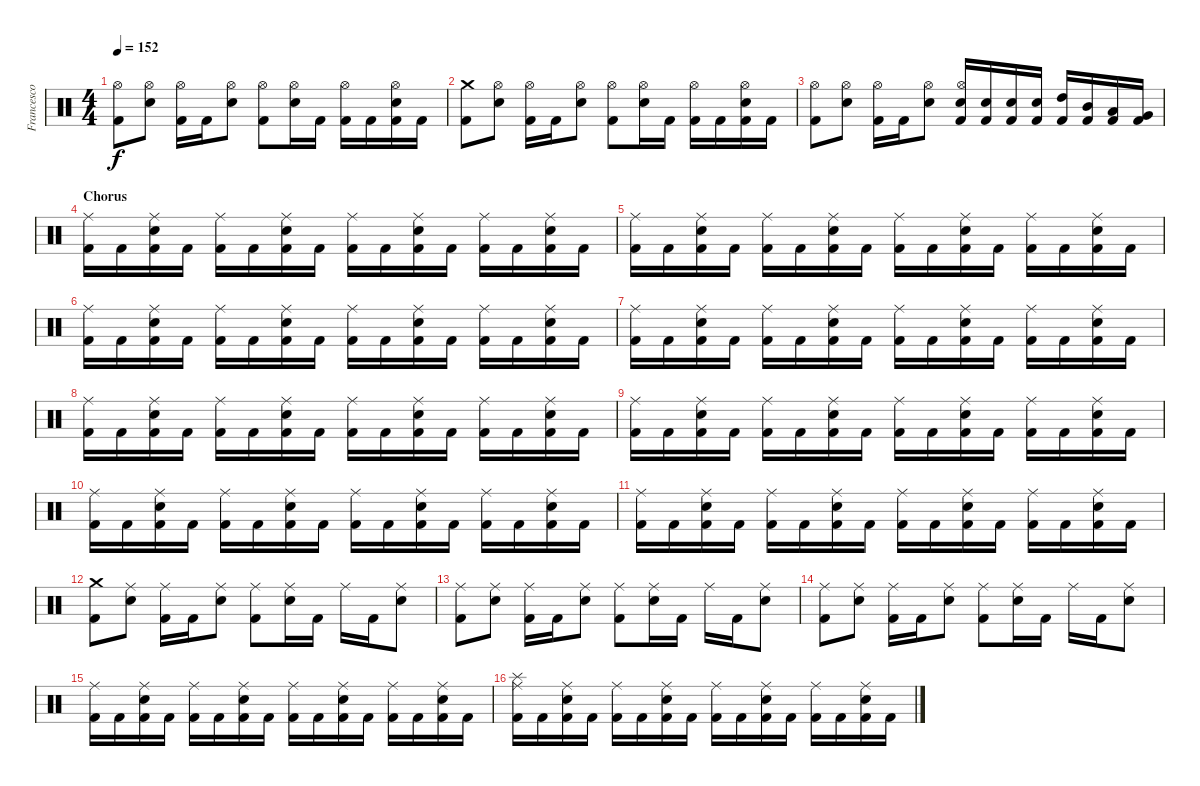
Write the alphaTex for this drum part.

\track ("Francesco Tresa" "Francesco ") {instrument percussion}
\staff {score}
\articulation defaults
\ts (4 4)
\tempo 152
\clef neutral
\ks c
("Kick (hit) 2" "Hi-Hat (open)").8{dy f} ("Snare (hit) 2" "Hi-Hat (open)").8 ("Kick (hit) 2" "Hi-Hat (open)").16 "Kick (hit) 2".16 ("Snare (hit) 2" "Hi-Hat (open)").8 ("Kick (hit) 2" "Hi-Hat (open)").8 ("Snare (hit) 2" "Hi-Hat (open)").16 "Kick (hit) 2".16 ("Kick (hit) 2" "Hi-Hat (open)").16 "Kick (hit) 2".16 ("Kick (hit) 2" "Snare (hit) 2" "Hi-Hat (open)").16 "Kick (hit) 2".16 |
("Kick (hit) 2" "Crash medium (hit)").8 ("Snare (hit) 2" "Hi-Hat (open)").8 ("Kick (hit) 2" "Hi-Hat (open)").16 "Kick (hit) 2".16 ("Snare (hit) 2" "Hi-Hat (open)").8 ("Kick (hit) 2" "Hi-Hat (open)").8 ("Snare (hit) 2" "Hi-Hat (open)").16 "Kick (hit) 2".16 ("Kick (hit) 2" "Hi-Hat (open)").16 "Kick (hit) 2".16 ("Kick (hit) 2" "Snare (hit) 2" "Hi-Hat (open)").16 "Kick (hit) 2".16 |
("Kick (hit) 2" "Hi-Hat (open)").8 ("Snare (hit) 2" "Hi-Hat (open)").8 ("Kick (hit) 2" "Hi-Hat (open)").16 "Kick (hit) 2".16 ("Snare (hit) 2" "Hi-Hat (open)").8 ("Kick (hit) 2" "Snare (hit) 2" "Hi-Hat (open)").16 ("Kick (hit) 2" "Snare (hit) 2").16 ("Kick (hit) 2" "Snare (hit) 2").16 ("Kick (hit) 2" "Snare (hit) 2").16 ("Kick (hit) 2" "High Tom (hit)").16 ("Kick (hit) 2" "Mid Tom (hit)").16 ("Kick (hit) 2" "Low Tom (hit)").16 ("Kick (hit) 2" "Very Low Tom (hit)").16 |
\section ("" "Chorus")
("Kick (hit) 2" "Ride (middle)").16 "Kick (hit) 2".16 ("Kick (hit) 2" "Snare (hit) 2" "Ride (middle)").16 "Kick (hit) 2".16 ("Kick (hit) 2" "Ride (middle)").16 "Kick (hit) 2".16 ("Kick (hit) 2" "Snare (hit) 2" "Ride (middle)").16 "Kick (hit) 2".16 ("Kick (hit) 2" "Ride (middle)").16 "Kick (hit) 2".16 ("Kick (hit) 2" "Snare (hit) 2" "Ride (middle)").16 "Kick (hit) 2".16 ("Kick (hit) 2" "Ride (middle)").16 "Kick (hit) 2".16 ("Kick (hit) 2" "Snare (hit) 2" "Ride (middle)").16 "Kick (hit) 2".16 |
("Kick (hit) 2" "Ride (middle)").16 "Kick (hit) 2".16 ("Kick (hit) 2" "Snare (hit) 2" "Ride (middle)").16 "Kick (hit) 2".16 ("Kick (hit) 2" "Ride (middle)").16 "Kick (hit) 2".16 ("Kick (hit) 2" "Snare (hit) 2" "Ride (middle)").16 "Kick (hit) 2".16 ("Kick (hit) 2" "Ride (middle)").16 "Kick (hit) 2".16 ("Kick (hit) 2" "Snare (hit) 2" "Ride (middle)").16 "Kick (hit) 2".16 ("Kick (hit) 2" "Ride (middle)").16 "Kick (hit) 2".16 ("Kick (hit) 2" "Snare (hit) 2" "Ride (middle)").16 "Kick (hit) 2".16 |
("Kick (hit) 2" "Ride (middle)").16 "Kick (hit) 2".16 ("Kick (hit) 2" "Snare (hit) 2" "Ride (middle)").16 "Kick (hit) 2".16 ("Kick (hit) 2" "Ride (middle)").16 "Kick (hit) 2".16 ("Kick (hit) 2" "Snare (hit) 2" "Ride (middle)").16 "Kick (hit) 2".16 ("Kick (hit) 2" "Ride (middle)").16 "Kick (hit) 2".16 ("Kick (hit) 2" "Snare (hit) 2" "Ride (middle)").16 "Kick (hit) 2".16 ("Kick (hit) 2" "Ride (middle)").16 "Kick (hit) 2".16 ("Kick (hit) 2" "Snare (hit) 2" "Ride (middle)").16 "Kick (hit) 2".16 |
("Kick (hit) 2" "Ride (middle)").16 "Kick (hit) 2".16 ("Kick (hit) 2" "Snare (hit) 2" "Ride (middle)").16 "Kick (hit) 2".16 ("Kick (hit) 2" "Ride (middle)").16 "Kick (hit) 2".16 ("Kick (hit) 2" "Snare (hit) 2" "Ride (middle)").16 "Kick (hit) 2".16 ("Kick (hit) 2" "Ride (middle)").16 "Kick (hit) 2".16 ("Kick (hit) 2" "Snare (hit) 2" "Ride (middle)").16 "Kick (hit) 2".16 ("Kick (hit) 2" "Ride (middle)").16 "Kick (hit) 2".16 ("Kick (hit) 2" "Snare (hit) 2" "Ride (middle)").16 "Kick (hit) 2".16 |
("Kick (hit) 2" "Ride (middle)").16 "Kick (hit) 2".16 ("Kick (hit) 2" "Snare (hit) 2" "Ride (middle)").16 "Kick (hit) 2".16 ("Kick (hit) 2" "Ride (middle)").16 "Kick (hit) 2".16 ("Kick (hit) 2" "Snare (hit) 2" "Ride (middle)").16 "Kick (hit) 2".16 ("Kick (hit) 2" "Ride (middle)").16 "Kick (hit) 2".16 ("Kick (hit) 2" "Snare (hit) 2" "Ride (middle)").16 "Kick (hit) 2".16 ("Kick (hit) 2" "Ride (middle)").16 "Kick (hit) 2".16 ("Kick (hit) 2" "Snare (hit) 2" "Ride (middle)").16 "Kick (hit) 2".16 |
("Kick (hit) 2" "Ride (middle)").16 "Kick (hit) 2".16 ("Kick (hit) 2" "Snare (hit) 2" "Ride (middle)").16 "Kick (hit) 2".16 ("Kick (hit) 2" "Ride (middle)").16 "Kick (hit) 2".16 ("Kick (hit) 2" "Snare (hit) 2" "Ride (middle)").16 "Kick (hit) 2".16 ("Kick (hit) 2" "Ride (middle)").16 "Kick (hit) 2".16 ("Kick (hit) 2" "Snare (hit) 2" "Ride (middle)").16 "Kick (hit) 2".16 ("Kick (hit) 2" "Ride (middle)").16 "Kick (hit) 2".16 ("Kick (hit) 2" "Snare (hit) 2" "Ride (middle)").16 "Kick (hit) 2".16 |
("Kick (hit) 2" "Ride (middle)").16 "Kick (hit) 2".16 ("Kick (hit) 2" "Snare (hit) 2" "Ride (middle)").16 "Kick (hit) 2".16 ("Kick (hit) 2" "Ride (middle)").16 "Kick (hit) 2".16 ("Kick (hit) 2" "Snare (hit) 2" "Ride (middle)").16 "Kick (hit) 2".16 ("Kick (hit) 2" "Ride (middle)").16 "Kick (hit) 2".16 ("Kick (hit) 2" "Snare (hit) 2" "Ride (middle)").16 "Kick (hit) 2".16 ("Kick (hit) 2" "Ride (middle)").16 "Kick (hit) 2".16 ("Kick (hit) 2" "Snare (hit) 2" "Ride (middle)").16 "Kick (hit) 2".16 |
("Kick (hit) 2" "Ride (middle)").16 "Kick (hit) 2".16 ("Kick (hit) 2" "Snare (hit) 2" "Ride (middle)").16 "Kick (hit) 2".16 ("Kick (hit) 2" "Ride (middle)").16 "Kick (hit) 2".16 ("Kick (hit) 2" "Snare (hit) 2" "Ride (middle)").16 "Kick (hit) 2".16 ("Kick (hit) 2" "Ride (middle)").16 "Kick (hit) 2".16 ("Kick (hit) 2" "Snare (hit) 2" "Ride (middle)").16 "Kick (hit) 2".16 ("Kick (hit) 2" "Ride (middle)").16 "Kick (hit) 2".16 ("Kick (hit) 2" "Snare (hit) 2" "Ride (middle)").16 "Kick (hit) 2".16 |
\section ("" "")
("Kick (hit) 2" "Crash medium (hit)").8 ("Snare (hit) 2" "Ride (middle)").8 ("Kick (hit) 2" "Ride (middle)").16 "Kick (hit) 2".16 ("Snare (hit) 2" "Ride (middle)").8 ("Kick (hit) 2" "Ride (middle)").8 ("Snare (hit) 2" "Ride (middle)").16 "Kick (hit) 2".16 "Ride (middle)".16 "Kick (hit) 2".16 ("Snare (hit) 2" "Ride (middle)").8 |
("Kick (hit) 2" "Ride (middle)").8 ("Snare (hit) 2" "Ride (middle)").8 ("Kick (hit) 2" "Ride (middle)").16 "Kick (hit) 2".16 ("Snare (hit) 2" "Ride (middle)").8 ("Kick (hit) 2" "Ride (middle)").8 ("Snare (hit) 2" "Ride (middle)").16 "Kick (hit) 2".16 "Ride (middle)".16 "Kick (hit) 2".16 ("Snare (hit) 2" "Ride (middle)").8 |
("Kick (hit) 2" "Ride (middle)").8 ("Snare (hit) 2" "Ride (middle)").8 ("Kick (hit) 2" "Ride (middle)").16 "Kick (hit) 2".16 ("Snare (hit) 2" "Ride (middle)").8 ("Kick (hit) 2" "Ride (middle)").8 ("Snare (hit) 2" "Ride (middle)").16 "Kick (hit) 2".16 "Ride (middle)".16 "Kick (hit) 2".16 ("Snare (hit) 2" "Ride (middle)").8 |
("Kick (hit) 2" "Ride (middle)").16 "Kick (hit) 2".16 ("Kick (hit) 2" "Snare (hit) 2" "Ride (middle)").16 "Kick (hit) 2".16 ("Kick (hit) 2" "Ride (middle)").16 "Kick (hit) 2".16 ("Kick (hit) 2" "Snare (hit) 2" "Ride (middle)").16 "Kick (hit) 2".16 ("Kick (hit) 2" "Ride (middle)").16 "Kick (hit) 2".16 ("Kick (hit) 2" "Snare (hit) 2" "Ride (middle)").16 "Kick (hit) 2".16 ("Kick (hit) 2" "Ride (middle)").16 "Kick (hit) 2".16 ("Kick (hit) 2" "Snare (hit) 2" "Ride (middle)").16 "Kick (hit) 2".16 |
("Kick (hit) 2" "Ride (middle)" "Splash (hit)").16 "Kick (hit) 2".16 ("Kick (hit) 2" "Snare (hit) 2" "Ride (middle)").16 "Kick (hit) 2".16 ("Kick (hit) 2" "Ride (middle)").16 "Kick (hit) 2".16 ("Kick (hit) 2" "Snare (hit) 2" "Ride (middle)").16 "Kick (hit) 2".16 ("Kick (hit) 2" "Ride (middle)").16 "Kick (hit) 2".16 ("Kick (hit) 2" "Snare (hit) 2" "Ride (middle)").16 "Kick (hit) 2".16 ("Kick (hit) 2" "Ride (middle)").16 "Kick (hit) 2".16 ("Kick (hit) 2" "Snare (hit) 2" "Ride (middle)").16 "Kick (hit) 2".16
